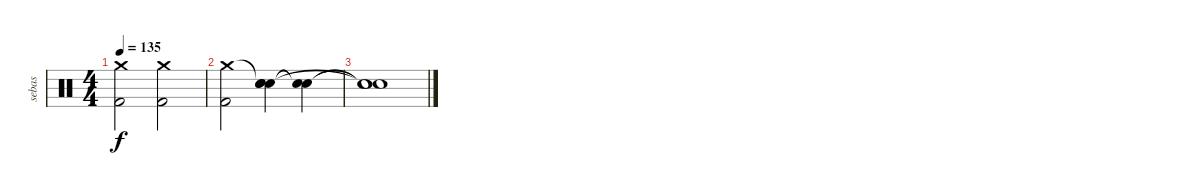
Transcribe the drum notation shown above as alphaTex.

\track ("sebas" "sebas") {instrument percussion}
\staff {score}
\articulation defaults
\ts (4 4)
\tempo 135
\clef neutral
\ks c
("Crash medium (hit)" "Kick (hit) 2").2{dy f} ("Crash medium (hit)" "Kick (hit) 2").2 |
("Crash medium (hit)" "Kick (hit) 2").2 ("Snare (hit)"{t} "Snare (hit) 2" "Snare (hit)"{t}).4 ("Snare (hit)"{t} "Snare (hit)"{t}).4 |
("Snare (hit)"{t} "Snare (hit)"{t} "Snare (hit)"{t}).1
